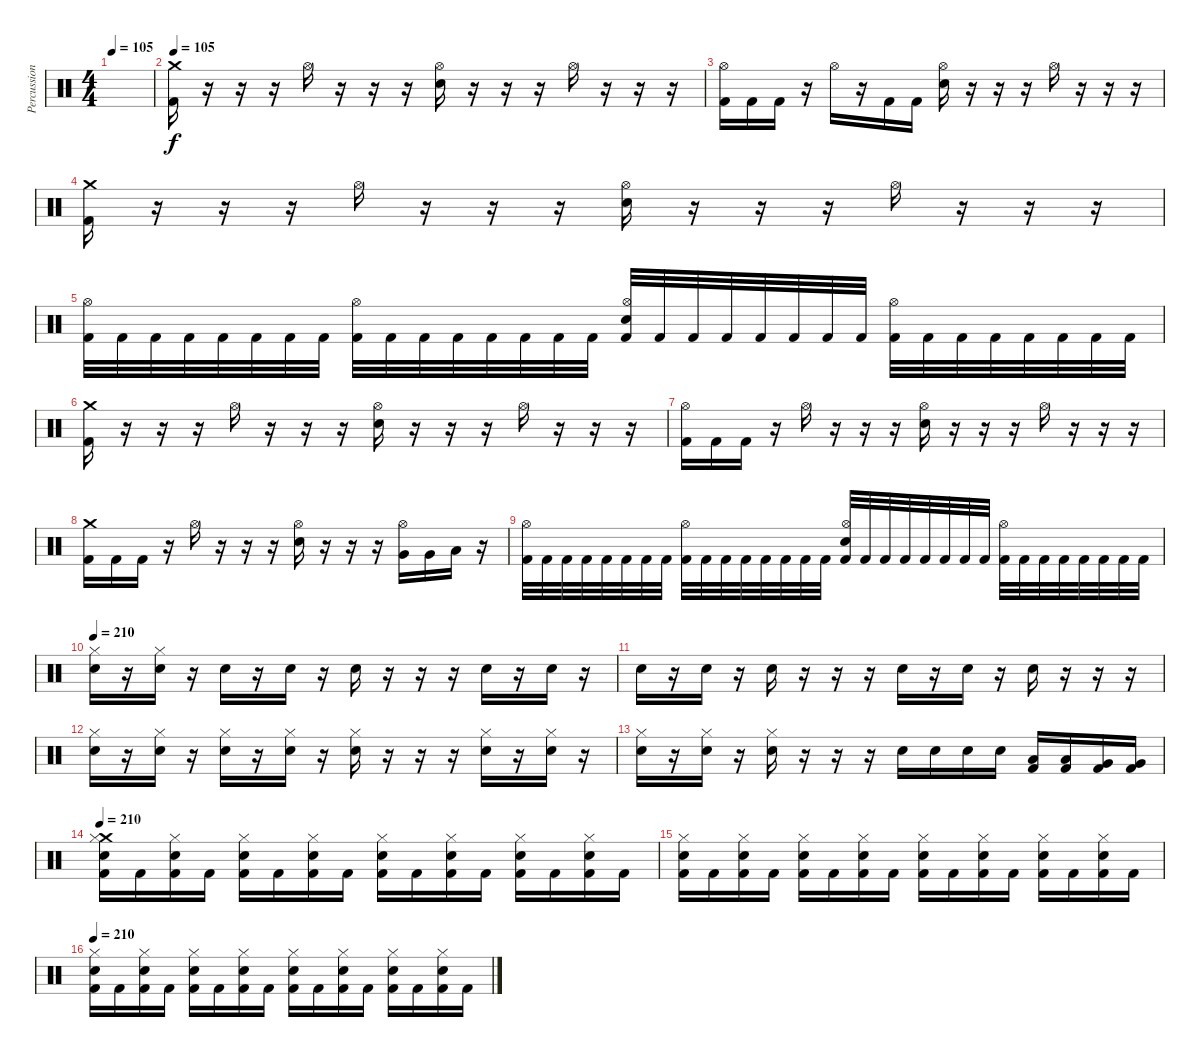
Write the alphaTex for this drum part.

\track ("Percussion" "Percussion") {instrument percussion}
\staff {score}
\articulation defaults
\ts (4 4)
\tempo 105
\clef neutral
\ks c
|
\tempo 105
("Crash medium (hit)" "Kick (hit) 2").16 r.16 r.16 r.16 "Hi-Hat (open)".16 r.16 r.16 r.16 ("Hi-Hat (open)" "Snare (hit) 2").16 r.16 r.16 r.16 "Hi-Hat (open)".16 r.16 r.16 r.16 |
("Hi-Hat (open)" "Kick (hit) 2").16 "Kick (hit) 2".16 "Kick (hit) 2".16 r.16 "Hi-Hat (open)".16 r.16 "Kick (hit) 2".16 "Kick (hit) 2".16 ("Hi-Hat (open)" "Snare (hit) 2").16 r.16 r.16 r.16 "Hi-Hat (open)".16 r.16 r.16 r.16 |
("Crash medium (hit)" "Kick (hit) 2").16 r.16 r.16 r.16 "Hi-Hat (open)".16 r.16 r.16 r.16 ("Hi-Hat (open)" "Snare (hit) 2").16 r.16 r.16 r.16 "Hi-Hat (open)".16 r.16 r.16 r.16 |
("Hi-Hat (open)" "Kick (hit) 2").32 "Kick (hit) 2".32 "Kick (hit) 2".32 "Kick (hit) 2".32 "Kick (hit) 2".32 "Kick (hit) 2".32 "Kick (hit) 2".32 "Kick (hit) 2".32 ("Hi-Hat (open)" "Kick (hit) 2").32 "Kick (hit) 2".32 "Kick (hit) 2".32 "Kick (hit) 2".32 "Kick (hit) 2".32 "Kick (hit) 2".32 "Kick (hit) 2".32 "Kick (hit) 2".32 ("Hi-Hat (open)" "Snare (hit) 2" "Kick (hit) 2").32 "Kick (hit) 2".32 "Kick (hit) 2".32 "Kick (hit) 2".32 "Kick (hit) 2".32 "Kick (hit) 2".32 "Kick (hit) 2".32 "Kick (hit) 2".32 ("Hi-Hat (open)" "Kick (hit) 2").32 "Kick (hit) 2".32 "Kick (hit) 2".32 "Kick (hit) 2".32 "Kick (hit) 2".32 "Kick (hit) 2".32 "Kick (hit) 2".32 "Kick (hit) 2".32 |
("Crash medium (hit)" "Kick (hit) 2").16 r.16 r.16 r.16 "Hi-Hat (open)".16 r.16 r.16 r.16 ("Hi-Hat (open)" "Snare (hit) 2").16 r.16 r.16 r.16 "Hi-Hat (open)".16 r.16 r.16 r.16 |
("Hi-Hat (open)" "Kick (hit) 2").16 "Kick (hit) 2".16 "Kick (hit) 2".16 r.16 "Hi-Hat (open)".16 r.16 r.16 r.16 ("Hi-Hat (open)" "Snare (hit) 2").16 r.16 r.16 r.16 "Hi-Hat (open)".16 r.16 r.16 r.16 |
("Crash medium (hit)" "Kick (hit) 2").16 "Kick (hit) 2".16 "Kick (hit) 2".16 r.16 "Hi-Hat (open)".16 r.16 r.16 r.16 ("Hi-Hat (open)" "Snare (hit) 2").16 r.16 r.16 r.16 ("Hi-Hat (open)" "Very Low Tom (hit)").16 "Very Low Tom (hit)".16 "Low Floor Tom (hit)".16 r.16 |
("Hi-Hat (open)" "Kick (hit) 2").32 "Kick (hit) 2".32 "Kick (hit) 2".32 "Kick (hit) 2".32 "Kick (hit) 2".32 "Kick (hit) 2".32 "Kick (hit) 2".32 "Kick (hit) 2".32 ("Hi-Hat (open)" "Kick (hit) 2").32 "Kick (hit) 2".32 "Kick (hit) 2".32 "Kick (hit) 2".32 "Kick (hit) 2".32 "Kick (hit) 2".32 "Kick (hit) 2".32 "Kick (hit) 2".32 ("Hi-Hat (open)" "Snare (hit) 2" "Kick (hit) 2").32 "Kick (hit) 2".32 "Kick (hit) 2".32 "Kick (hit) 2".32 "Kick (hit) 2".32 "Kick (hit) 2".32 "Kick (hit) 2".32 "Kick (hit) 2".32 ("Hi-Hat (open)" "Kick (hit) 2").32 "Kick (hit) 2".32 "Kick (hit) 2".32 "Kick (hit) 2".32 "Kick (hit) 2".32 "Kick (hit) 2".32 "Kick (hit) 2".32 "Kick (hit) 2".32 |
\tempo 210
("Hi-Hat (closed)" "Snare (hit) 2").16 r.16 ("Hi-Hat (closed)" "Snare (hit) 2").16 r.16 "Snare (hit) 2".16 r.16 "Snare (hit) 2".16 r.16 "Snare (hit) 2".16 r.16 r.16 r.16 "Snare (hit) 2".16 r.16 "Snare (hit) 2".16 r.16 |
"Snare (hit) 2".16 r.16 "Snare (hit) 2".16 r.16 "Snare (hit) 2".16 r.16 r.16 r.16 "Snare (hit) 2".16 r.16 "Snare (hit) 2".16 r.16 "Snare (hit) 2".16 r.16 r.16 r.16 |
("Hi-Hat (closed)" "Snare (hit) 2").16 r.16 ("Hi-Hat (closed)" "Snare (hit) 2").16 r.16 ("Hi-Hat (closed)" "Snare (hit) 2").16 r.16 ("Hi-Hat (closed)" "Snare (hit) 2").16 r.16 ("Hi-Hat (closed)" "Snare (hit) 2").16 r.16 r.16 r.16 ("Hi-Hat (closed)" "Snare (hit) 2").16 r.16 ("Hi-Hat (closed)" "Snare (hit) 2").16 r.16 |
("Hi-Hat (closed)" "Snare (hit) 2").16 r.16 ("Hi-Hat (closed)" "Snare (hit) 2").16 r.16 ("Hi-Hat (closed)" "Snare (hit) 2").16 r.16 r.16 r.16 "Snare (hit) 2".16 "Snare (hit) 2".16 "Snare (hit) 2".16 "Snare (hit) 2".16 ("Low Tom (hit)" "Kick (hit) 2").16 ("Low Tom (hit)" "Kick (hit) 2").16 ("Very Low Tom (hit)" "Kick (hit) 2").16 ("Very Low Tom (hit)" "Kick (hit) 2").16 |
\tempo 210
("Crash medium (hit)" "Hi-Hat (closed)" "Snare (hit) 2" "Kick (hit) 2").16 "Kick (hit) 2".16 ("Hi-Hat (closed)" "Snare (hit) 2" "Kick (hit) 2").16 "Kick (hit) 2".16 ("Hi-Hat (closed)" "Snare (hit) 2" "Kick (hit) 2").16 "Kick (hit) 2".16 ("Hi-Hat (closed)" "Snare (hit) 2" "Kick (hit) 2").16 "Kick (hit) 2".16 ("Hi-Hat (closed)" "Snare (hit) 2" "Kick (hit) 2").16 "Kick (hit) 2".16 ("Hi-Hat (closed)" "Snare (hit) 2" "Kick (hit) 2").16 "Kick (hit) 2".16 ("Hi-Hat (closed)" "Snare (hit) 2" "Kick (hit) 2").16 "Kick (hit) 2".16 ("Hi-Hat (closed)" "Snare (hit) 2" "Kick (hit) 2").16 "Kick (hit) 2".16 |
("Hi-Hat (closed)" "Snare (hit) 2" "Kick (hit) 2").16 "Kick (hit) 2".16 ("Hi-Hat (closed)" "Snare (hit) 2" "Kick (hit) 2").16 "Kick (hit) 2".16 ("Hi-Hat (closed)" "Snare (hit) 2" "Kick (hit) 2").16 "Kick (hit) 2".16 ("Hi-Hat (closed)" "Snare (hit) 2" "Kick (hit) 2").16 "Kick (hit) 2".16 ("Hi-Hat (closed)" "Snare (hit) 2" "Kick (hit) 2").16 "Kick (hit) 2".16 ("Hi-Hat (closed)" "Snare (hit) 2" "Kick (hit) 2").16 "Kick (hit) 2".16 ("Hi-Hat (closed)" "Snare (hit) 2" "Kick (hit) 2").16 "Kick (hit) 2".16 ("Hi-Hat (closed)" "Snare (hit) 2" "Kick (hit) 2").16 "Kick (hit) 2".16 |
\tempo 210
("Hi-Hat (closed)" "Snare (hit) 2" "Kick (hit) 2").16 "Kick (hit) 2".16 ("Hi-Hat (closed)" "Snare (hit) 2" "Kick (hit) 2").16 "Kick (hit) 2".16 ("Hi-Hat (closed)" "Snare (hit) 2" "Kick (hit) 2").16 "Kick (hit) 2".16 ("Hi-Hat (closed)" "Snare (hit) 2" "Kick (hit) 2").16 "Kick (hit) 2".16 ("Hi-Hat (closed)" "Snare (hit) 2" "Kick (hit) 2").16 "Kick (hit) 2".16 ("Hi-Hat (closed)" "Snare (hit) 2" "Kick (hit) 2").16 "Kick (hit) 2".16 ("Hi-Hat (closed)" "Snare (hit) 2" "Kick (hit) 2").16 "Kick (hit) 2".16 ("Hi-Hat (closed)" "Snare (hit) 2" "Kick (hit) 2").16 "Kick (hit) 2".16
